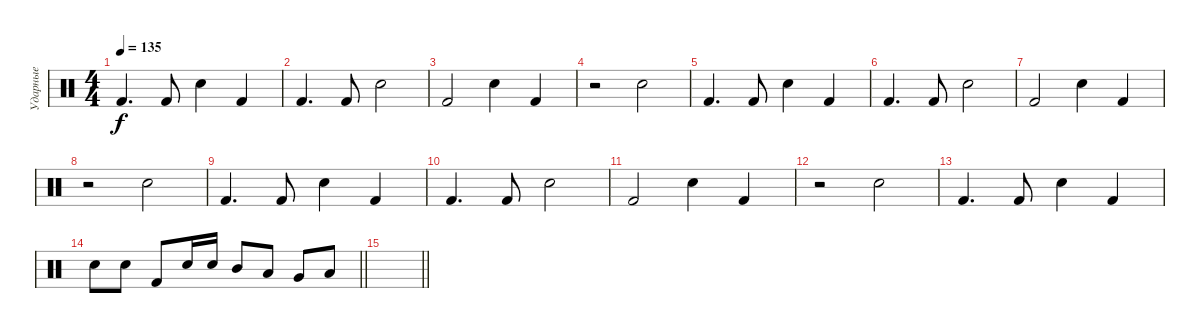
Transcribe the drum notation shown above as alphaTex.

\track ("Ударные" "Ударные") {instrument percussion}
\staff {score}
\articulation defaults
\ts (4 4)
\tempo 135
\clef neutral
\ks c "Kick (hit) 2".4{d dy f} "Kick (hit) 2".8 "Snare (hit) 2".4 "Kick (hit) 2".4
|
"Kick (hit) 2".4{d} "Kick (hit) 2".8 "Snare (hit) 2".2 |
"Kick (hit) 2".2 "Snare (hit) 2".4 "Kick (hit) 2".4 |
r.2 "Snare (hit) 2".2 |
"Kick (hit) 2".4{d} "Kick (hit) 2".8 "Snare (hit) 2".4 "Kick (hit) 2".4 |
"Kick (hit) 2".4{d} "Kick (hit) 2".8 "Snare (hit) 2".2 |
"Kick (hit) 2".2 "Snare (hit) 2".4 "Kick (hit) 2".4 |
r.2 "Snare (hit) 2".2 |
"Kick (hit) 2".4{d} "Kick (hit) 2".8 "Snare (hit) 2".4 "Kick (hit) 2".4 |
"Kick (hit) 2".4{d} "Kick (hit) 2".8 "Snare (hit) 2".2 |
"Kick (hit) 2".2 "Snare (hit) 2".4 "Kick (hit) 2".4 |
r.2 "Snare (hit) 2".2 |
"Kick (hit) 2".4{d} "Kick (hit) 2".8 "Snare (hit) 2".4 "Kick (hit) 2".4 |
\barLineRight lightlight "Snare (hit) 2".8 "Snare (hit) 2".8 "Kick (hit) 2".8 "Snare (hit) 2".16 "Snare (hit) 2".16 "Mid Tom (hit)".8 "Low Tom (hit)".8 "Very Low Tom (hit)".8 "Low Floor Tom (hit)".8
|
\barLineRight lightlight
